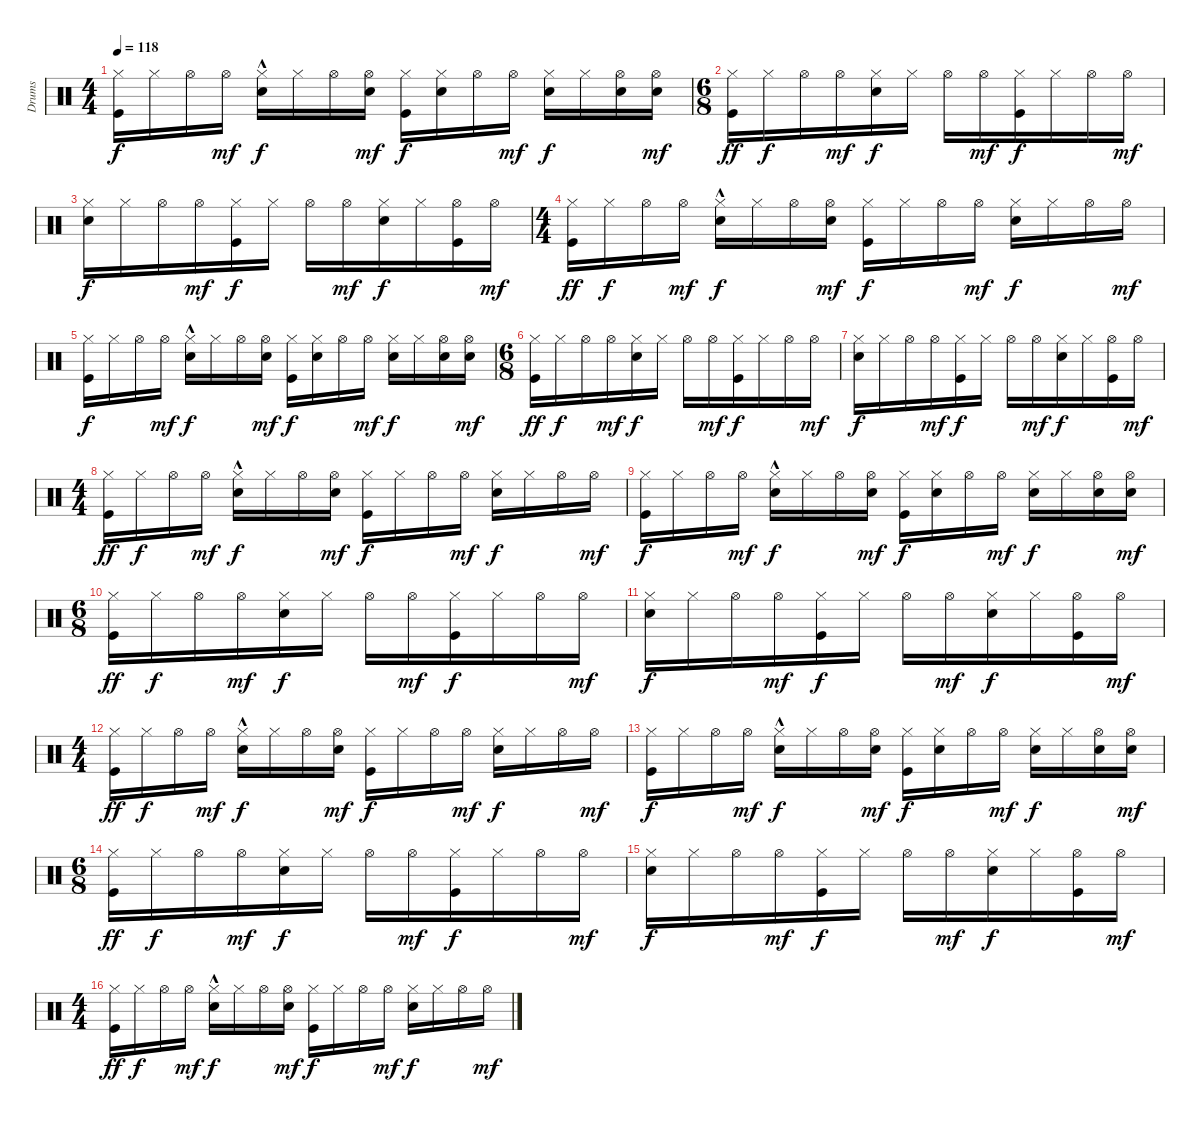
\track ("Drums" "Drums") {instrument percussion}
\staff {score}
\articulation defaults
\ts (4 4)
\tempo 118
\clef neutral
\ks c
("Kick (hit)" "Hi-Hat (closed)").16{dy f} "Hi-Hat (closed)".16 "Hi-Hat (open)".16 "Hi-Hat (open)".16{dy mf} ("Electric Snare (hit)"{hac} "Hi-Hat (closed)").16{dy f} "Hi-Hat (closed)".16 "Hi-Hat (open)".16 ("Hi-Hat (open)" "Electric Snare (hit)").16{dy mf} ("Hi-Hat (closed)" "Kick (hit)").16{dy f} ("Electric Snare (hit)" "Hi-Hat (closed)").16 "Hi-Hat (open)".16 "Hi-Hat (open)".16{dy mf} ("Electric Snare (hit)" "Hi-Hat (closed)").16{dy f} "Hi-Hat (closed)".16 ("Electric Snare (hit)" "Hi-Hat (open)").16 ("Electric Snare (hit)" "Hi-Hat (open)").16{dy mf} |
\ts (6 8)
("Hi-Hat (closed)" "Kick (hit)").16{dy ff} "Hi-Hat (closed)".16{dy f} "Hi-Hat (open)".16 "Hi-Hat (open)".16{dy mf} ("Electric Snare (hit)" "Hi-Hat (closed)").16{dy f} "Hi-Hat (closed)".16 "Hi-Hat (open)".16 "Hi-Hat (open)".16{dy mf} ("Kick (hit)" "Hi-Hat (closed)").16{dy f} "Hi-Hat (closed)".16 "Hi-Hat (open)".16 "Hi-Hat (open)".16{dy mf} |
("Electric Snare (hit)" "Hi-Hat (closed)").16{dy f} "Hi-Hat (closed)".16 "Hi-Hat (open)".16 "Hi-Hat (open)".16{dy mf} ("Kick (hit)" "Hi-Hat (closed)").16{dy f} "Hi-Hat (closed)".16 "Hi-Hat (open)".16 "Hi-Hat (open)".16{dy mf} ("Electric Snare (hit)" "Hi-Hat (closed)").16{dy f} "Hi-Hat (closed)".16 ("Kick (hit)" "Hi-Hat (open)").16 "Hi-Hat (open)".16{dy mf} |
\ts (4 4)
("Kick (hit)" "Hi-Hat (closed)").16{dy ff} "Hi-Hat (closed)".16{dy f} "Hi-Hat (open)".16 "Hi-Hat (open)".16{dy mf} ("Electric Snare (hit)"{hac} "Hi-Hat (closed)").16{dy f} "Hi-Hat (closed)".16 "Hi-Hat (open)".16 ("Hi-Hat (open)" "Electric Snare (hit)").16{dy mf} ("Hi-Hat (closed)" "Kick (hit)").16{dy f} "Hi-Hat (closed)".16 "Hi-Hat (open)".16 "Hi-Hat (open)".16{dy mf} ("Electric Snare (hit)" "Hi-Hat (closed)").16{dy f} "Hi-Hat (closed)".16 "Hi-Hat (open)".16 "Hi-Hat (open)".16{dy mf} |
("Kick (hit)" "Hi-Hat (closed)").16{dy f} "Hi-Hat (closed)".16 "Hi-Hat (open)".16 "Hi-Hat (open)".16{dy mf} ("Electric Snare (hit)"{hac} "Hi-Hat (closed)").16{dy f} "Hi-Hat (closed)".16 "Hi-Hat (open)".16 ("Hi-Hat (open)" "Electric Snare (hit)").16{dy mf} ("Hi-Hat (closed)" "Kick (hit)").16{dy f} ("Electric Snare (hit)" "Hi-Hat (closed)").16 "Hi-Hat (open)".16 "Hi-Hat (open)".16{dy mf} ("Electric Snare (hit)" "Hi-Hat (closed)").16{dy f} "Hi-Hat (closed)".16 ("Electric Snare (hit)" "Hi-Hat (open)").16 ("Electric Snare (hit)" "Hi-Hat (open)").16{dy mf} |
\ts (6 8)
("Hi-Hat (closed)" "Kick (hit)").16{dy ff} "Hi-Hat (closed)".16{dy f} "Hi-Hat (open)".16 "Hi-Hat (open)".16{dy mf} ("Electric Snare (hit)" "Hi-Hat (closed)").16{dy f} "Hi-Hat (closed)".16 "Hi-Hat (open)".16 "Hi-Hat (open)".16{dy mf} ("Kick (hit)" "Hi-Hat (closed)").16{dy f} "Hi-Hat (closed)".16 "Hi-Hat (open)".16 "Hi-Hat (open)".16{dy mf} |
("Electric Snare (hit)" "Hi-Hat (closed)").16{dy f} "Hi-Hat (closed)".16 "Hi-Hat (open)".16 "Hi-Hat (open)".16{dy mf} ("Kick (hit)" "Hi-Hat (closed)").16{dy f} "Hi-Hat (closed)".16 "Hi-Hat (open)".16 "Hi-Hat (open)".16{dy mf} ("Electric Snare (hit)" "Hi-Hat (closed)").16{dy f} "Hi-Hat (closed)".16 ("Kick (hit)" "Hi-Hat (open)").16 "Hi-Hat (open)".16{dy mf} |
\ts (4 4)
("Kick (hit)" "Hi-Hat (closed)").16{dy ff} "Hi-Hat (closed)".16{dy f} "Hi-Hat (open)".16 "Hi-Hat (open)".16{dy mf} ("Electric Snare (hit)"{hac} "Hi-Hat (closed)").16{dy f} "Hi-Hat (closed)".16 "Hi-Hat (open)".16 ("Hi-Hat (open)" "Electric Snare (hit)").16{dy mf} ("Hi-Hat (closed)" "Kick (hit)").16{dy f} "Hi-Hat (closed)".16 "Hi-Hat (open)".16 "Hi-Hat (open)".16{dy mf} ("Electric Snare (hit)" "Hi-Hat (closed)").16{dy f} "Hi-Hat (closed)".16 "Hi-Hat (open)".16 "Hi-Hat (open)".16{dy mf} |
("Kick (hit)" "Hi-Hat (closed)").16{dy f} "Hi-Hat (closed)".16 "Hi-Hat (open)".16 "Hi-Hat (open)".16{dy mf} ("Electric Snare (hit)"{hac} "Hi-Hat (closed)").16{dy f} "Hi-Hat (closed)".16 "Hi-Hat (open)".16 ("Hi-Hat (open)" "Electric Snare (hit)").16{dy mf} ("Hi-Hat (closed)" "Kick (hit)").16{dy f} ("Electric Snare (hit)" "Hi-Hat (closed)").16 "Hi-Hat (open)".16 "Hi-Hat (open)".16{dy mf} ("Electric Snare (hit)" "Hi-Hat (closed)").16{dy f} "Hi-Hat (closed)".16 ("Electric Snare (hit)" "Hi-Hat (open)").16 ("Electric Snare (hit)" "Hi-Hat (open)").16{dy mf} |
\ts (6 8)
("Hi-Hat (closed)" "Kick (hit)").16{dy ff} "Hi-Hat (closed)".16{dy f} "Hi-Hat (open)".16 "Hi-Hat (open)".16{dy mf} ("Electric Snare (hit)" "Hi-Hat (closed)").16{dy f} "Hi-Hat (closed)".16 "Hi-Hat (open)".16 "Hi-Hat (open)".16{dy mf} ("Kick (hit)" "Hi-Hat (closed)").16{dy f} "Hi-Hat (closed)".16 "Hi-Hat (open)".16 "Hi-Hat (open)".16{dy mf} |
("Electric Snare (hit)" "Hi-Hat (closed)").16{dy f} "Hi-Hat (closed)".16 "Hi-Hat (open)".16 "Hi-Hat (open)".16{dy mf} ("Kick (hit)" "Hi-Hat (closed)").16{dy f} "Hi-Hat (closed)".16 "Hi-Hat (open)".16 "Hi-Hat (open)".16{dy mf} ("Electric Snare (hit)" "Hi-Hat (closed)").16{dy f} "Hi-Hat (closed)".16 ("Kick (hit)" "Hi-Hat (open)").16 "Hi-Hat (open)".16{dy mf} |
\ts (4 4)
("Kick (hit)" "Hi-Hat (closed)").16{dy ff} "Hi-Hat (closed)".16{dy f} "Hi-Hat (open)".16 "Hi-Hat (open)".16{dy mf} ("Electric Snare (hit)"{hac} "Hi-Hat (closed)").16{dy f} "Hi-Hat (closed)".16 "Hi-Hat (open)".16 ("Hi-Hat (open)" "Electric Snare (hit)").16{dy mf} ("Hi-Hat (closed)" "Kick (hit)").16{dy f} "Hi-Hat (closed)".16 "Hi-Hat (open)".16 "Hi-Hat (open)".16{dy mf} ("Electric Snare (hit)" "Hi-Hat (closed)").16{dy f} "Hi-Hat (closed)".16 "Hi-Hat (open)".16 "Hi-Hat (open)".16{dy mf} |
("Kick (hit)" "Hi-Hat (closed)").16{dy f} "Hi-Hat (closed)".16 "Hi-Hat (open)".16 "Hi-Hat (open)".16{dy mf} ("Electric Snare (hit)"{hac} "Hi-Hat (closed)").16{dy f} "Hi-Hat (closed)".16 "Hi-Hat (open)".16 ("Hi-Hat (open)" "Electric Snare (hit)").16{dy mf} ("Hi-Hat (closed)" "Kick (hit)").16{dy f} ("Electric Snare (hit)" "Hi-Hat (closed)").16 "Hi-Hat (open)".16 "Hi-Hat (open)".16{dy mf} ("Electric Snare (hit)" "Hi-Hat (closed)").16{dy f} "Hi-Hat (closed)".16 ("Electric Snare (hit)" "Hi-Hat (open)").16 ("Electric Snare (hit)" "Hi-Hat (open)").16{dy mf} |
\ts (6 8)
("Hi-Hat (closed)" "Kick (hit)").16{dy ff} "Hi-Hat (closed)".16{dy f} "Hi-Hat (open)".16 "Hi-Hat (open)".16{dy mf} ("Electric Snare (hit)" "Hi-Hat (closed)").16{dy f} "Hi-Hat (closed)".16 "Hi-Hat (open)".16 "Hi-Hat (open)".16{dy mf} ("Kick (hit)" "Hi-Hat (closed)").16{dy f} "Hi-Hat (closed)".16 "Hi-Hat (open)".16 "Hi-Hat (open)".16{dy mf} |
("Electric Snare (hit)" "Hi-Hat (closed)").16{dy f} "Hi-Hat (closed)".16 "Hi-Hat (open)".16 "Hi-Hat (open)".16{dy mf} ("Kick (hit)" "Hi-Hat (closed)").16{dy f} "Hi-Hat (closed)".16 "Hi-Hat (open)".16 "Hi-Hat (open)".16{dy mf} ("Electric Snare (hit)" "Hi-Hat (closed)").16{dy f} "Hi-Hat (closed)".16 ("Kick (hit)" "Hi-Hat (open)").16 "Hi-Hat (open)".16{dy mf} |
\ts (4 4)
("Kick (hit)" "Hi-Hat (closed)").16{dy ff} "Hi-Hat (closed)".16{dy f volume 13} "Hi-Hat (open)".16{volume 12} "Hi-Hat (open)".16{dy mf volume 12} ("Electric Snare (hit)"{hac} "Hi-Hat (closed)").16{dy f volume 12} "Hi-Hat (closed)".16{volume 11} "Hi-Hat (open)".16{volume 11} ("Hi-Hat (open)" "Electric Snare (hit)").16{dy mf volume 10} ("Hi-Hat (closed)" "Kick (hit)").16{dy f volume 10} "Hi-Hat (closed)".16{volume 10} "Hi-Hat (open)".16{volume 10} "Hi-Hat (open)".16{dy mf volume 9} ("Electric Snare (hit)" "Hi-Hat (closed)").16{dy f volume 9} "Hi-Hat (closed)".16{volume 8} "Hi-Hat (open)".16{volume 8} "Hi-Hat (open)".16{dy mf volume 8}
